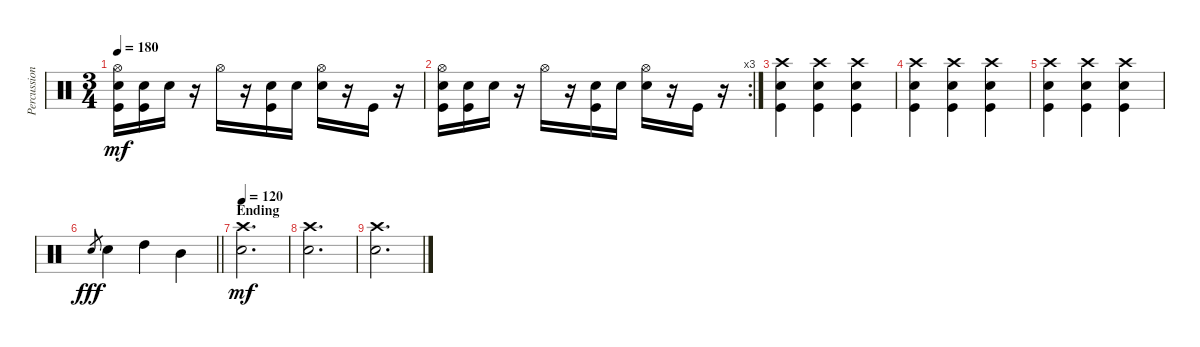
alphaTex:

\track ("Percussion" "Percussion") {instrument percussion}
\staff {score}
\articulation defaults
\ts (3 4)
\tempo 180
\clef neutral
\ks c
("Hi-Hat (open)" "Electric Snare (hit)" "Kick (hit)").16{dy mf} ("Electric Snare (hit)" "Kick (hit)").16 "Electric Snare (hit)".16 r.16 "Hi-Hat (open)".16 r.16 ("Electric Snare (hit)" "Kick (hit)").16 "Electric Snare (hit)".16 ("Hi-Hat (open)" "Electric Snare (hit)").16 r.16 "Kick (hit)".16 r.16 |
\rc 3
("Hi-Hat (open)" "Electric Snare (hit)" "Kick (hit)").16 ("Electric Snare (hit)" "Kick (hit)").16 "Electric Snare (hit)".16 r.16 "Hi-Hat (open)".16 r.16 ("Electric Snare (hit)" "Kick (hit)").16 "Electric Snare (hit)".16 ("Hi-Hat (open)" "Electric Snare (hit)").16 r.16 "Kick (hit)".16 r.16 |
("Crash high (hit)" "Electric Snare (hit)" "Kick (hit)").4 ("Crash high (hit)" "Electric Snare (hit)" "Kick (hit)").4 ("Crash high (hit)" "Electric Snare (hit)" "Kick (hit)").4 |
("Crash high (hit)" "Electric Snare (hit)" "Kick (hit)").4 ("Crash high (hit)" "Electric Snare (hit)" "Kick (hit)").4 ("Crash high (hit)" "Electric Snare (hit)" "Kick (hit)").4 |
("Crash high (hit)" "Kick (hit)" "Electric Snare (hit)").4 ("Crash high (hit)" "Kick (hit)" "Electric Snare (hit)").4 ("Crash high (hit)" "Kick (hit)" "Electric Snare (hit)").4 |
\barLineRight lightlight "Electric Snare (hit)".8{gr dy fff} "Electric Snare (hit)".4 "High Tom (hit)".4 "Mid Tom (hit)".4
|
\section ("" "Ending")
\tempo 120
("Crash high (hit)" "Electric Snare (hit)").2{d dy mf} |
("Crash high (hit)" "Electric Snare (hit)").2{d} |
("Crash high (hit)" "Electric Snare (hit)").2{d}
